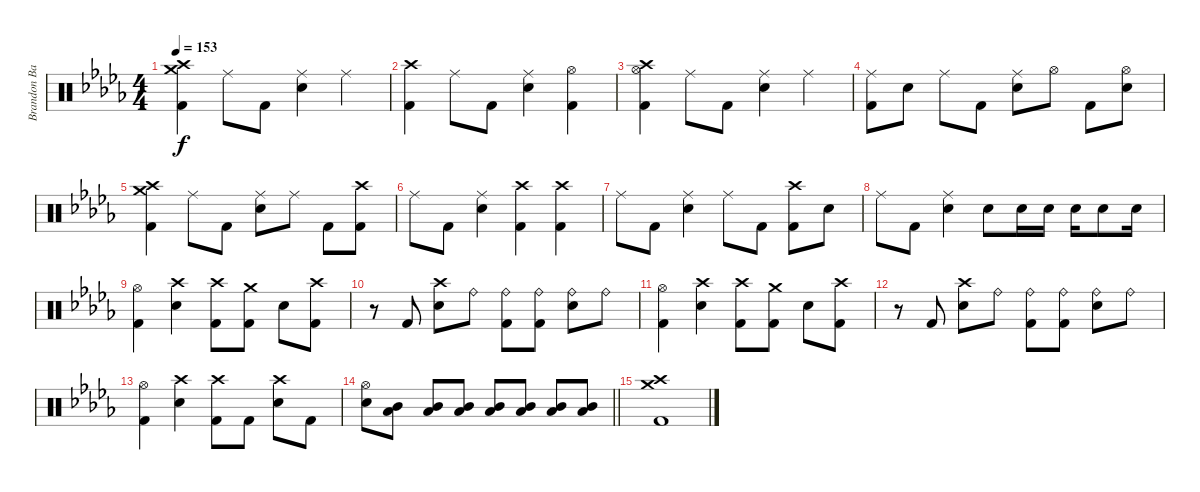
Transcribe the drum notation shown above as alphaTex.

\track ("Brandon Barnes" "Brandon Ba") {instrument percussion}
\staff {score}
\articulation defaults
\ts (4 4)
\tempo 153
\clef neutral
\ks db
("Crash high (hit)" "Crash medium (hit)" "Kick (hit) 2").4{dy f} "Ride (middle)".8 "Kick (hit) 2".8 ("Ride (middle)" "Snare (hit) 2").4 "Ride (middle)".4 |
("Crash high (hit)" "Kick (hit) 2").4 "Ride (middle)".8 "Kick (hit) 2".8 ("Ride (middle)" "Snare (hit) 2").4 ("Hi-Hat (open)" "Kick (hit) 2").4 |
("Hi-Hat (open)" "Crash high (hit)" "Kick (hit) 2").4 "Ride (middle)".8 "Kick (hit) 2".8 ("Ride (middle)" "Snare (hit) 2").4 "Ride (middle)".4 |
("Ride (middle)" "Kick (hit) 2").8 "Snare (hit) 2".8 "Ride (middle)".8 "Kick (hit) 2".8 ("Ride (middle)" "Snare (hit) 2").8 "Hi-Hat (open)".8 "Kick (hit) 2".8 ("Hi-Hat (open)" "Snare (hit) 2").8 |
("Crash high (hit)" "Crash medium (hit)" "Kick (hit) 2").4 "Ride (middle)".8 "Kick (hit) 2".8 ("Ride (middle)" "Snare (hit) 2").8 "Ride (middle)".8 "Kick (hit) 2".8 ("Crash high (hit)" "Kick (hit) 2").8 |
"Ride (middle)".8 "Kick (hit) 2".8 ("Ride (middle)" "Snare (hit) 2").4 ("Crash high (hit)" "Kick (hit) 2").4 ("Crash high (hit)" "Kick (hit) 2").4 |
"Ride (middle)".8 "Kick (hit) 2".8 ("Ride (middle)" "Snare (hit) 2").4 "Ride (middle)".8 "Kick (hit) 2".8 ("Crash high (hit)" "Kick (hit) 2").8 "Snare (hit) 2".8 |
"Ride (middle)".8 "Kick (hit) 2".8 ("Ride (middle)" "Snare (hit) 2").4 "Snare (hit) 2".8 "Snare (hit) 2".16 "Snare (hit) 2".16 "Snare (hit) 2".16 "Snare (hit) 2".8 "Snare (hit) 2".16 |
("Hi-Hat (open)" "Kick (hit) 2").4 ("Crash high (hit)" "Snare (hit) 2").4 ("Crash high (hit)" "Kick (hit) 2").8 ("Crash medium (hit)" "Kick (hit) 2").8 "Snare (hit) 2".8 ("Crash high (hit)" "Kick (hit) 2").8 |
r.8 "Kick (hit) 2".8 ("Crash high (hit)" "Snare (hit) 2").8 "Ride (bell)".8 ("Ride (bell)" "Kick (hit) 2").8 ("Ride (bell)" "Kick (hit) 2").8 ("Ride (bell)" "Snare (hit) 2").8 "Ride (bell)".8 |
("Hi-Hat (open)" "Kick (hit) 2").4 ("Crash high (hit)" "Snare (hit) 2").4 ("Crash high (hit)" "Kick (hit) 2").8 ("Crash medium (hit)" "Kick (hit) 2").8 "Snare (hit) 2".8 ("Crash high (hit)" "Kick (hit) 2").8 |
r.8 "Kick (hit) 2".8 ("Crash high (hit)" "Snare (hit) 2").8 "Ride (bell)".8 ("Ride (bell)" "Kick (hit) 2").8 ("Ride (bell)" "Kick (hit) 2").8 ("Ride (bell)" "Snare (hit) 2").8 "Ride (bell)".8 |
("Hi-Hat (open)" "Kick (hit) 2").4 ("Crash high (hit)" "Snare (hit) 2").4 ("Crash high (hit)" "Kick (hit) 2").8 "Kick (hit) 2".8 ("Crash high (hit)" "Snare (hit) 2").8 "Kick (hit) 2".8 |
\barLineRight lightlight
("Hi-Hat (open)" "Snare (hit) 2").8 ("Mid Tom (hit)" "Low Floor Tom (hit)").8 ("Mid Tom (hit)" "Low Floor Tom (hit)").8 ("Mid Tom (hit)" "Low Floor Tom (hit)").8 ("Mid Tom (hit)" "Low Floor Tom (hit)").8 ("Mid Tom (hit)" "Low Floor Tom (hit)").8 ("Mid Tom (hit)" "Low Floor Tom (hit)").8 ("Mid Tom (hit)" "Low Floor Tom (hit)").8 |
("Crash high (hit)" "Crash medium (hit)" "Kick (hit) 2").1
